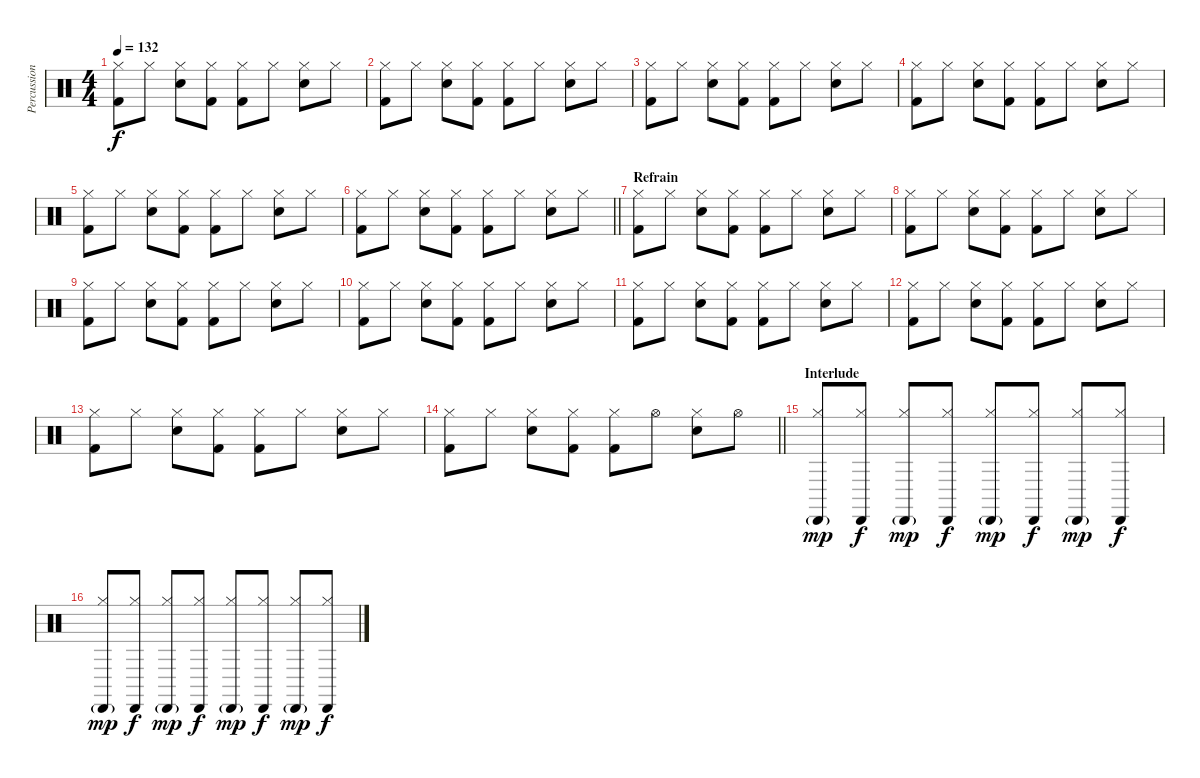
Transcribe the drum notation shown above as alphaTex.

\track ("Percussions" "Percussion") {instrument percussion}
\staff {score}
\articulation defaults
\ts (4 4)
\tempo 132
\clef neutral
\ks c
("Hi-Hat (closed)" "Kick (hit) 2").8{dy f} "Hi-Hat (closed)".8 ("Hi-Hat (closed)" "Snare (hit) 2").8 ("Hi-Hat (closed)" "Kick (hit) 2").8 ("Hi-Hat (closed)" "Kick (hit) 2").8 "Hi-Hat (closed)".8 ("Hi-Hat (closed)" "Snare (hit) 2").8 "Hi-Hat (closed)".8 |
("Hi-Hat (closed)" "Kick (hit) 2").8 "Hi-Hat (closed)".8 ("Hi-Hat (closed)" "Snare (hit) 2").8 ("Hi-Hat (closed)" "Kick (hit) 2").8 ("Hi-Hat (closed)" "Kick (hit) 2").8 "Hi-Hat (closed)".8 ("Hi-Hat (closed)" "Snare (hit) 2").8 "Hi-Hat (closed)".8 |
("Hi-Hat (closed)" "Kick (hit) 2").8 "Hi-Hat (closed)".8 ("Hi-Hat (closed)" "Snare (hit) 2").8 ("Hi-Hat (closed)" "Kick (hit) 2").8 ("Hi-Hat (closed)" "Kick (hit) 2").8 "Hi-Hat (closed)".8 ("Hi-Hat (closed)" "Snare (hit) 2").8 "Hi-Hat (closed)".8 |
("Hi-Hat (closed)" "Kick (hit) 2").8 "Hi-Hat (closed)".8 ("Hi-Hat (closed)" "Snare (hit) 2").8 ("Hi-Hat (closed)" "Kick (hit) 2").8 ("Hi-Hat (closed)" "Kick (hit) 2").8 "Hi-Hat (closed)".8 ("Hi-Hat (closed)" "Snare (hit) 2").8 "Hi-Hat (closed)".8 |
("Hi-Hat (closed)" "Kick (hit) 2").8 "Hi-Hat (closed)".8 ("Hi-Hat (closed)" "Snare (hit) 2").8 ("Hi-Hat (closed)" "Kick (hit) 2").8 ("Hi-Hat (closed)" "Kick (hit) 2").8 "Hi-Hat (closed)".8 ("Hi-Hat (closed)" "Snare (hit) 2").8 "Hi-Hat (closed)".8 |
\barLineRight lightlight
("Hi-Hat (closed)" "Kick (hit) 2").8 "Hi-Hat (closed)".8 ("Hi-Hat (closed)" "Snare (hit) 2").8 ("Hi-Hat (closed)" "Kick (hit) 2").8 ("Hi-Hat (closed)" "Kick (hit) 2").8 "Hi-Hat (closed)".8 ("Hi-Hat (closed)" "Snare (hit) 2").8 "Hi-Hat (closed)".8 |
\section ("" "Refrain")
("Hi-Hat (closed)" "Kick (hit) 2").8 "Hi-Hat (closed)".8 ("Hi-Hat (closed)" "Snare (hit) 2").8 ("Hi-Hat (closed)" "Kick (hit) 2").8 ("Hi-Hat (closed)" "Kick (hit) 2").8 "Hi-Hat (closed)".8 ("Hi-Hat (closed)" "Snare (hit) 2").8 "Hi-Hat (closed)".8 |
("Hi-Hat (closed)" "Kick (hit) 2").8 "Hi-Hat (closed)".8 ("Hi-Hat (closed)" "Snare (hit) 2").8 ("Hi-Hat (closed)" "Kick (hit) 2").8 ("Hi-Hat (closed)" "Kick (hit) 2").8 "Hi-Hat (closed)".8 ("Hi-Hat (closed)" "Snare (hit) 2").8 "Hi-Hat (closed)".8 |
("Hi-Hat (closed)" "Kick (hit) 2").8 "Hi-Hat (closed)".8 ("Hi-Hat (closed)" "Snare (hit) 2").8 ("Hi-Hat (closed)" "Kick (hit) 2").8 ("Hi-Hat (closed)" "Kick (hit) 2").8 "Hi-Hat (closed)".8 ("Hi-Hat (closed)" "Snare (hit) 2").8 "Hi-Hat (closed)".8 |
("Hi-Hat (closed)" "Kick (hit) 2").8 "Hi-Hat (closed)".8 ("Hi-Hat (closed)" "Snare (hit) 2").8 ("Hi-Hat (closed)" "Kick (hit) 2").8 ("Hi-Hat (closed)" "Kick (hit) 2").8 "Hi-Hat (closed)".8 ("Hi-Hat (closed)" "Snare (hit) 2").8 "Hi-Hat (closed)".8 |
("Hi-Hat (closed)" "Kick (hit) 2").8 "Hi-Hat (closed)".8 ("Hi-Hat (closed)" "Snare (hit) 2").8 ("Hi-Hat (closed)" "Kick (hit) 2").8 ("Hi-Hat (closed)" "Kick (hit) 2").8 "Hi-Hat (closed)".8 ("Hi-Hat (closed)" "Snare (hit) 2").8 "Hi-Hat (closed)".8 |
("Hi-Hat (closed)" "Kick (hit) 2").8 "Hi-Hat (closed)".8 ("Hi-Hat (closed)" "Snare (hit) 2").8 ("Hi-Hat (closed)" "Kick (hit) 2").8 ("Hi-Hat (closed)" "Kick (hit) 2").8 "Hi-Hat (closed)".8 ("Hi-Hat (closed)" "Snare (hit) 2").8 "Hi-Hat (closed)".8 |
("Hi-Hat (closed)" "Kick (hit) 2").8 "Hi-Hat (closed)".8 ("Hi-Hat (closed)" "Snare (hit) 2").8 ("Hi-Hat (closed)" "Kick (hit) 2").8 ("Hi-Hat (closed)" "Kick (hit) 2").8 "Hi-Hat (closed)".8 ("Hi-Hat (closed)" "Snare (hit) 2").8 "Hi-Hat (closed)".8 |
\barLineRight lightlight
("Hi-Hat (closed)" "Kick (hit) 2").8 "Hi-Hat (closed)".8 ("Hi-Hat (closed)" "Snare (hit) 2").8 ("Hi-Hat (closed)" "Kick (hit) 2").8 ("Hi-Hat (closed)" "Kick (hit) 2").8 "Hi-Hat (open)".8 ("Hi-Hat (closed)" "Snare (hit) 2").8 "Hi-Hat (open)".8 |
\section ("" "Interlude")
("Hi-Hat (closed)" "Cabasa (hit)"{g}).8{dy mp} ("Hi-Hat (closed)" "Cabasa (hit)").8{dy f} ("Hi-Hat (closed)" "Cabasa (hit)"{g}).8{dy mp} ("Hi-Hat (closed)" "Cabasa (hit)").8{dy f} ("Hi-Hat (closed)" "Cabasa (hit)"{g}).8{dy mp} ("Hi-Hat (closed)" "Cabasa (hit)").8{dy f} ("Hi-Hat (closed)" "Cabasa (hit)"{g}).8{dy mp} ("Hi-Hat (closed)" "Cabasa (hit)").8{dy f} |
("Hi-Hat (closed)" "Cabasa (hit)"{g}).8{dy mp} ("Hi-Hat (closed)" "Cabasa (hit)").8{dy f} ("Hi-Hat (closed)" "Cabasa (hit)"{g}).8{dy mp} ("Hi-Hat (closed)" "Cabasa (hit)").8{dy f} ("Hi-Hat (closed)" "Cabasa (hit)"{g}).8{dy mp} ("Hi-Hat (closed)" "Cabasa (hit)").8{dy f} ("Hi-Hat (closed)" "Cabasa (hit)"{g}).8{dy mp} ("Hi-Hat (closed)" "Cabasa (hit)").8{dy f}
